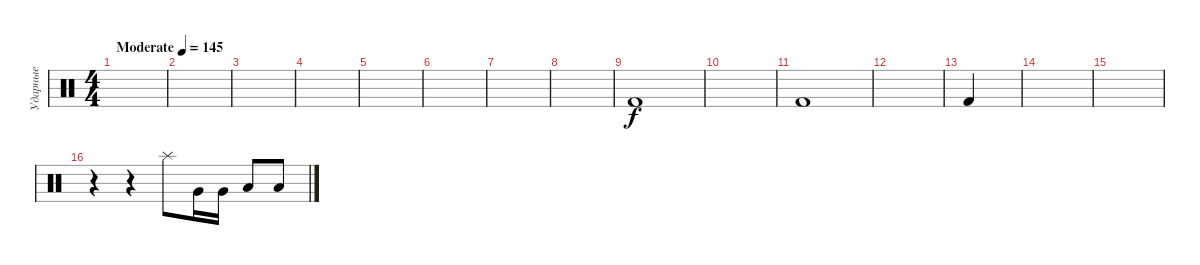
\track ("Ударные" "Ударные") {instrument percussion}
\staff {score}
\articulation defaults
\ts (4 4)
\tempo (145 "Moderate")
\clef neutral
\ks c
|
|
|
|
|
|
|
|
"Kick (hit) 2".1 |
|
"Kick (hit) 2".1 |
|
"Kick (hit) 2".4 |
|
|
r.4 r.4 "Splash (hit)".8 "Very Low Tom (hit)".16 "Very Low Tom (hit)".16 "Low Floor Tom (hit)".8 "Low Floor Tom (hit)".8
